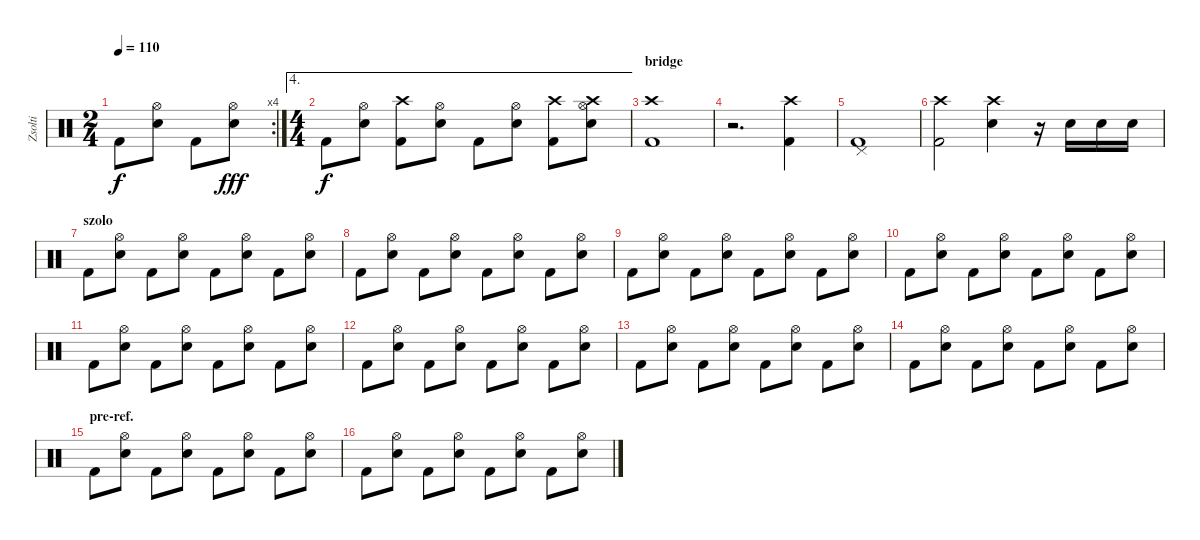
\track ("Zsolti" "Zsolti") {instrument percussion}
\staff {score}
\articulation defaults
\rc 4
\ts (2 4)
\tempo 110
\clef neutral
\ks c "Kick (hit) 2".8{dy f}
("Hi-Hat (open)" "Snare (hit) 2").8 "Kick (hit) 2".8 ("Hi-Hat (open)" "Snare (hit) 2").8{dy fff} |
\ae 4
\ts (4 4)
"Kick (hit) 2".8{dy f} ("Hi-Hat (open)" "Snare (hit) 2").8 ("Crash high (hit)" "Kick (hit) 2").8 ("Hi-Hat (open)" "Snare (hit) 2").8 "Kick (hit) 2".8 ("Hi-Hat (open)" "Snare (hit) 2").8 ("Crash high (hit)" "Kick (hit) 2").8 ("Crash high (hit)" "Hi-Hat (open)" "Snare (hit) 2").8 |
\section ("" "bridge")
("Kick (hit) 2" "Crash high (hit)").1 |
r.2{d} ("Kick (hit) 2" "Crash high (hit)").4 |
("Kick (hit) 2" "Pedal Hi-Hat (hit)").1 |
("Kick (hit) 2" "Crash high (hit)").2 ("Snare (hit) 2" "Crash high (hit)").4 r.16 "Snare (hit) 2".16 "Snare (hit) 2".16 "Snare (hit) 2".16 |
\section ("" "szolo")
"Kick (hit) 2".8 ("Hi-Hat (open)" "Snare (hit) 2").8 "Kick (hit) 2".8 ("Hi-Hat (open)" "Snare (hit) 2").8 "Kick (hit) 2".8 ("Hi-Hat (open)" "Snare (hit) 2").8 "Kick (hit) 2".8 ("Hi-Hat (open)" "Snare (hit) 2").8 |
"Kick (hit) 2".8 ("Hi-Hat (open)" "Snare (hit) 2").8 "Kick (hit) 2".8 ("Hi-Hat (open)" "Snare (hit) 2").8 "Kick (hit) 2".8 ("Hi-Hat (open)" "Snare (hit) 2").8 "Kick (hit) 2".8 ("Hi-Hat (open)" "Snare (hit) 2").8 |
"Kick (hit) 2".8 ("Hi-Hat (open)" "Snare (hit) 2").8 "Kick (hit) 2".8 ("Hi-Hat (open)" "Snare (hit) 2").8 "Kick (hit) 2".8 ("Hi-Hat (open)" "Snare (hit) 2").8 "Kick (hit) 2".8 ("Hi-Hat (open)" "Snare (hit) 2").8 |
"Kick (hit) 2".8 ("Hi-Hat (open)" "Snare (hit) 2").8 "Kick (hit) 2".8 ("Hi-Hat (open)" "Snare (hit) 2").8 "Kick (hit) 2".8 ("Hi-Hat (open)" "Snare (hit) 2").8 "Kick (hit) 2".8 ("Hi-Hat (open)" "Snare (hit) 2").8 |
"Kick (hit) 2".8 ("Hi-Hat (open)" "Snare (hit) 2").8 "Kick (hit) 2".8 ("Hi-Hat (open)" "Snare (hit) 2").8 "Kick (hit) 2".8 ("Hi-Hat (open)" "Snare (hit) 2").8 "Kick (hit) 2".8 ("Hi-Hat (open)" "Snare (hit) 2").8 |
"Kick (hit) 2".8 ("Hi-Hat (open)" "Snare (hit) 2").8 "Kick (hit) 2".8 ("Hi-Hat (open)" "Snare (hit) 2").8 "Kick (hit) 2".8 ("Hi-Hat (open)" "Snare (hit) 2").8 "Kick (hit) 2".8 ("Hi-Hat (open)" "Snare (hit) 2").8 |
"Kick (hit) 2".8 ("Hi-Hat (open)" "Snare (hit) 2").8 "Kick (hit) 2".8 ("Hi-Hat (open)" "Snare (hit) 2").8 "Kick (hit) 2".8 ("Hi-Hat (open)" "Snare (hit) 2").8 "Kick (hit) 2".8 ("Hi-Hat (open)" "Snare (hit) 2").8 |
"Kick (hit) 2".8 ("Hi-Hat (open)" "Snare (hit) 2").8 "Kick (hit) 2".8 ("Hi-Hat (open)" "Snare (hit) 2").8 "Kick (hit) 2".8 ("Hi-Hat (open)" "Snare (hit) 2").8 "Kick (hit) 2".8 ("Hi-Hat (open)" "Snare (hit) 2").8 |
\section ("" "pre-ref.")
"Kick (hit) 2".8 ("Hi-Hat (open)" "Snare (hit) 2").8 "Kick (hit) 2".8 ("Hi-Hat (open)" "Snare (hit) 2").8 "Kick (hit) 2".8 ("Hi-Hat (open)" "Snare (hit) 2").8 "Kick (hit) 2".8 ("Hi-Hat (open)" "Snare (hit) 2").8 |
"Kick (hit) 2".8 ("Hi-Hat (open)" "Snare (hit) 2").8 "Kick (hit) 2".8 ("Hi-Hat (open)" "Snare (hit) 2").8 "Kick (hit) 2".8 ("Hi-Hat (open)" "Snare (hit) 2").8 "Kick (hit) 2".8 ("Hi-Hat (open)" "Snare (hit) 2").8
